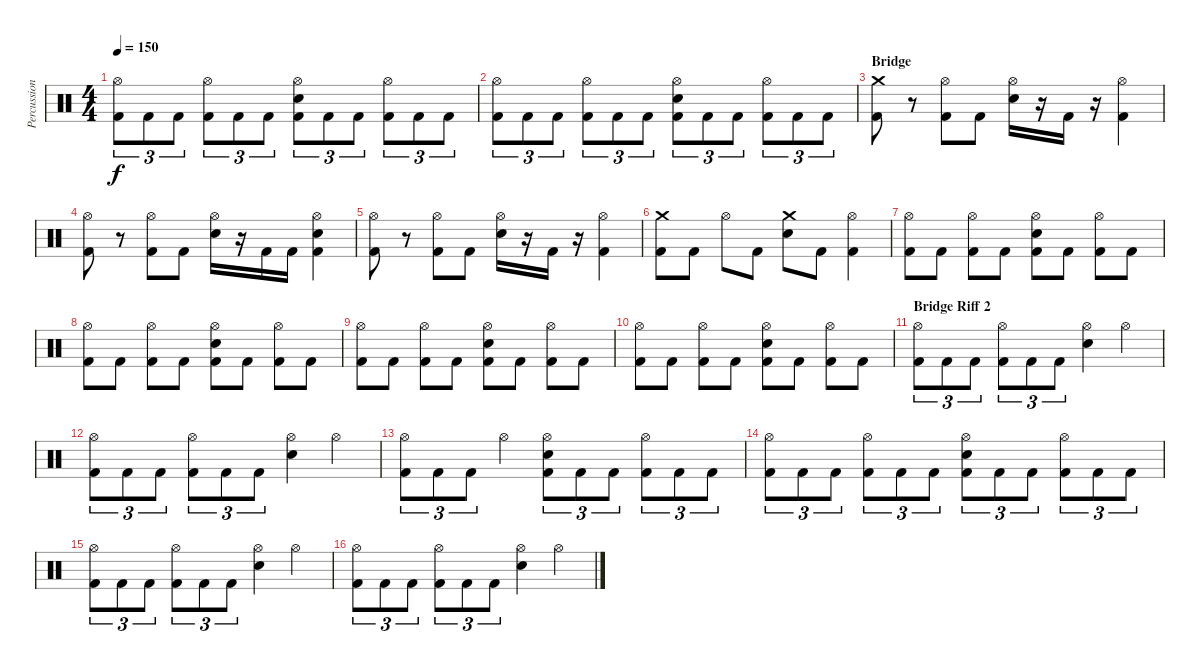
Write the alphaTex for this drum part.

\track ("Percussion" "Percussion") {instrument percussion}
\staff {score}
\articulation defaults
\ts (4 4)
\tempo 150
\clef neutral
\ks c
("Hi-Hat (open)" "Kick (hit) 2").8{tu (3 2) dy f} "Kick (hit) 2".8{tu (3 2)} "Kick (hit) 2".8{tu (3 2)} ("Hi-Hat (open)" "Kick (hit) 2").8{tu (3 2)} "Kick (hit) 2".8{tu (3 2)} "Kick (hit) 2".8{tu (3 2)} ("Hi-Hat (open)" "Electric Snare (hit)" "Kick (hit) 2").8{tu (3 2)} "Kick (hit) 2".8{tu (3 2)} "Kick (hit) 2".8{tu (3 2)} ("Hi-Hat (open)" "Kick (hit) 2").8{tu (3 2)} "Kick (hit) 2".8{tu (3 2)} "Kick (hit) 2".8{tu (3 2)} |
("Hi-Hat (open)" "Kick (hit) 2").8{tu (3 2)} "Kick (hit) 2".8{tu (3 2)} "Kick (hit) 2".8{tu (3 2)} ("Hi-Hat (open)" "Kick (hit) 2").8{tu (3 2)} "Kick (hit) 2".8{tu (3 2)} "Kick (hit) 2".8{tu (3 2)} ("Hi-Hat (open)" "Electric Snare (hit)" "Kick (hit) 2").8{tu (3 2)} "Kick (hit) 2".8{tu (3 2)} "Kick (hit) 2".8{tu (3 2)} ("Hi-Hat (open)" "Kick (hit) 2").8{tu (3 2)} "Kick (hit) 2".8{tu (3 2)} "Kick (hit) 2".8{tu (3 2)} |
\section ("" "Bridge")
("Crash medium (hit)" "Kick (hit) 2").8 r.8 ("Hi-Hat (open)" "Kick (hit) 2").8 "Kick (hit) 2".8 ("Hi-Hat (open)" "Electric Snare (hit)").16 r.16 "Kick (hit) 2".16 r.16 ("Hi-Hat (open)" "Kick (hit) 2").4 |
("Hi-Hat (open)" "Kick (hit) 2").8 r.8 ("Hi-Hat (open)" "Kick (hit) 2").8 "Kick (hit) 2".8 ("Hi-Hat (open)" "Electric Snare (hit)").16 r.16 "Kick (hit) 2".16 "Kick (hit) 2".16 ("Hi-Hat (open)" "Electric Snare (hit)" "Kick (hit) 2").4 |
("Hi-Hat (open)" "Kick (hit) 2").8 r.8 ("Hi-Hat (open)" "Kick (hit) 2").8 "Kick (hit) 2".8 ("Hi-Hat (open)" "Electric Snare (hit)").16 r.16 "Kick (hit) 2".16 r.16 ("Hi-Hat (open)" "Kick (hit) 2").4 |
("Crash medium (hit)" "Kick (hit) 2").8 "Kick (hit) 2".8 "Hi-Hat (open)".8 "Kick (hit) 2".8 ("Crash medium (hit)" "Electric Snare (hit)").8 "Kick (hit) 2".8 ("Hi-Hat (open)" "Kick (hit) 2").4 |
("Hi-Hat (open)" "Kick (hit) 2").8 "Kick (hit) 2".8 ("Hi-Hat (open)" "Kick (hit) 2").8 "Kick (hit) 2".8 ("Hi-Hat (open)" "Electric Snare (hit)" "Kick (hit) 2").8 "Kick (hit) 2".8 ("Hi-Hat (open)" "Kick (hit) 2").8 "Kick (hit) 2".8 |
("Hi-Hat (open)" "Kick (hit) 2").8 "Kick (hit) 2".8 ("Hi-Hat (open)" "Kick (hit) 2").8 "Kick (hit) 2".8 ("Hi-Hat (open)" "Electric Snare (hit)" "Kick (hit) 2").8 "Kick (hit) 2".8 ("Hi-Hat (open)" "Kick (hit) 2").8 "Kick (hit) 2".8 |
("Hi-Hat (open)" "Kick (hit) 2").8 "Kick (hit) 2".8 ("Hi-Hat (open)" "Kick (hit) 2").8 "Kick (hit) 2".8 ("Hi-Hat (open)" "Electric Snare (hit)" "Kick (hit) 2").8 "Kick (hit) 2".8 ("Hi-Hat (open)" "Kick (hit) 2").8 "Kick (hit) 2".8 |
("Hi-Hat (open)" "Kick (hit) 2").8 "Kick (hit) 2".8 ("Hi-Hat (open)" "Kick (hit) 2").8 "Kick (hit) 2".8 ("Hi-Hat (open)" "Electric Snare (hit)" "Kick (hit) 2").8 "Kick (hit) 2".8 ("Hi-Hat (open)" "Kick (hit) 2").8 "Kick (hit) 2".8 |
\section ("" "Bridge Riff 2")
("Hi-Hat (open)" "Kick (hit) 2").8{tu (3 2)} "Kick (hit) 2".8{tu (3 2)} "Kick (hit) 2".8{tu (3 2)} ("Hi-Hat (open)" "Kick (hit) 2").8{tu (3 2)} "Kick (hit) 2".8{tu (3 2)} "Kick (hit) 2".8{tu (3 2)} ("Hi-Hat (open)" "Electric Snare (hit)").4 "Hi-Hat (open)".4 |
("Hi-Hat (open)" "Kick (hit) 2").8{tu (3 2)} "Kick (hit) 2".8{tu (3 2)} "Kick (hit) 2".8{tu (3 2)} ("Hi-Hat (open)" "Kick (hit) 2").8{tu (3 2)} "Kick (hit) 2".8{tu (3 2)} "Kick (hit) 2".8{tu (3 2)} ("Hi-Hat (open)" "Electric Snare (hit)").4 "Hi-Hat (open)".4 |
("Hi-Hat (open)" "Kick (hit) 2").8{tu (3 2)} "Kick (hit) 2".8{tu (3 2)} "Kick (hit) 2".8{tu (3 2)} "Hi-Hat (open)".4 ("Hi-Hat (open)" "Electric Snare (hit)" "Kick (hit) 2").8{tu (3 2)} "Kick (hit) 2".8{tu (3 2)} "Kick (hit) 2".8{tu (3 2)} ("Hi-Hat (open)" "Kick (hit) 2").8{tu (3 2)} "Kick (hit) 2".8{tu (3 2)} "Kick (hit) 2".8{tu (3 2)} |
("Hi-Hat (open)" "Kick (hit) 2").8{tu (3 2)} "Kick (hit) 2".8{tu (3 2)} "Kick (hit) 2".8{tu (3 2)} ("Hi-Hat (open)" "Kick (hit) 2").8{tu (3 2)} "Kick (hit) 2".8{tu (3 2)} "Kick (hit) 2".8{tu (3 2)} ("Hi-Hat (open)" "Electric Snare (hit)" "Kick (hit) 2").8{tu (3 2)} "Kick (hit) 2".8{tu (3 2)} "Kick (hit) 2".8{tu (3 2)} ("Hi-Hat (open)" "Kick (hit) 2").8{tu (3 2)} "Kick (hit) 2".8{tu (3 2)} "Kick (hit) 2".8{tu (3 2)} |
("Hi-Hat (open)" "Kick (hit) 2").8{tu (3 2)} "Kick (hit) 2".8{tu (3 2)} "Kick (hit) 2".8{tu (3 2)} ("Hi-Hat (open)" "Kick (hit) 2").8{tu (3 2)} "Kick (hit) 2".8{tu (3 2)} "Kick (hit) 2".8{tu (3 2)} ("Hi-Hat (open)" "Electric Snare (hit)").4 "Hi-Hat (open)".4 |
("Hi-Hat (open)" "Kick (hit) 2").8{tu (3 2)} "Kick (hit) 2".8{tu (3 2)} "Kick (hit) 2".8{tu (3 2)} ("Hi-Hat (open)" "Kick (hit) 2").8{tu (3 2)} "Kick (hit) 2".8{tu (3 2)} "Kick (hit) 2".8{tu (3 2)} ("Hi-Hat (open)" "Electric Snare (hit)").4 "Hi-Hat (open)".4
